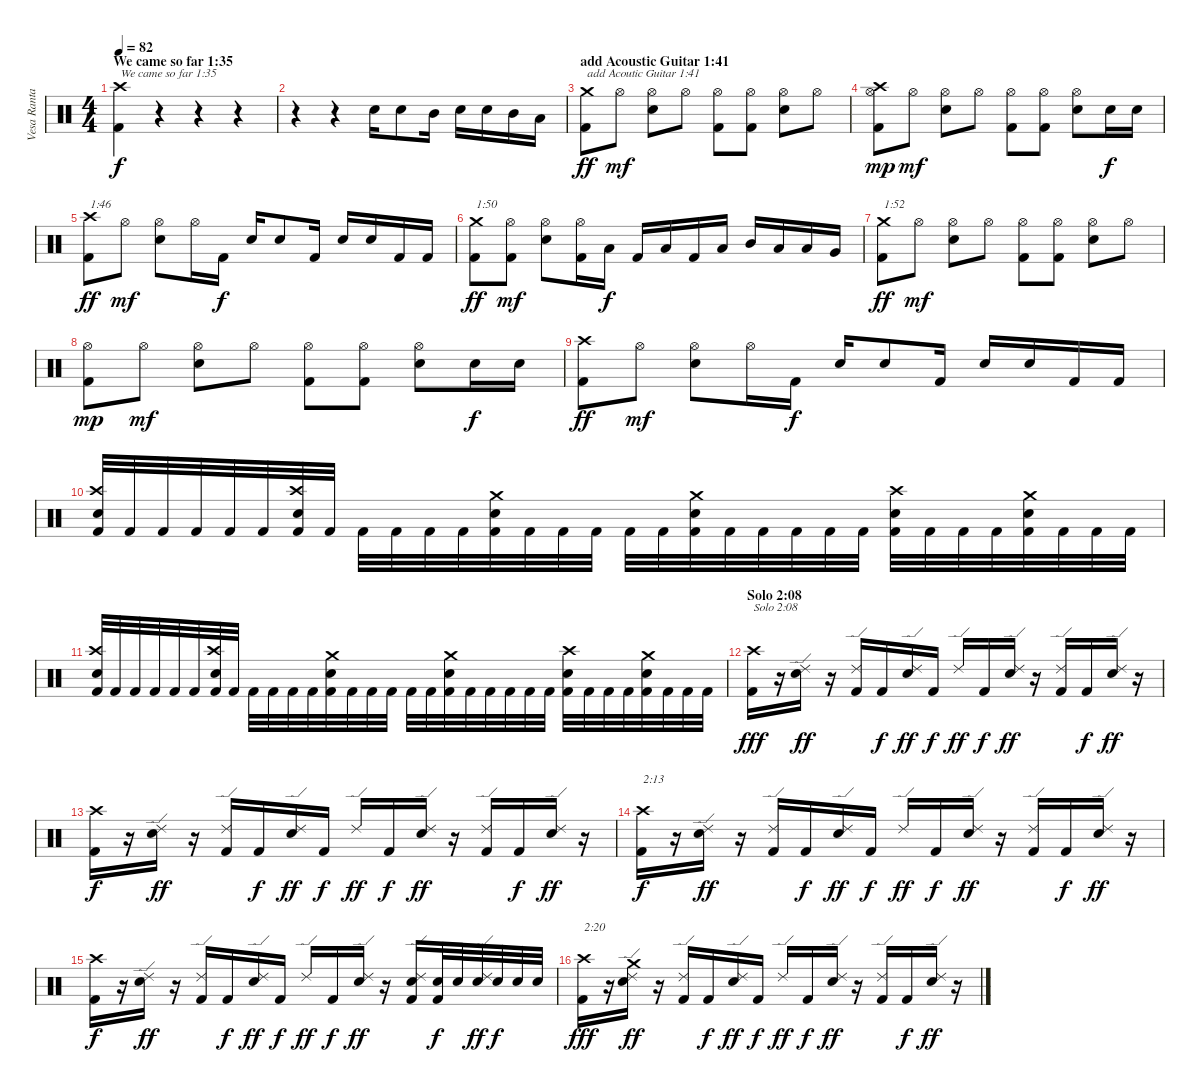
\track ("Vesa Ranta (Drums)" "Vesa Ranta") {instrument percussion}
\staff {score}
\articulation defaults
\ts (4 4)
\section ("" "We came so far 1:35")
\tempo 82
\clef neutral
\ks c
("Kick (hit) 2" "Crash high (hit)").4{txt "We came so far 1:35" dy f} r.4 r.4 r.4 |
r.4 r.4 "Electric Snare (hit)".16 "Electric Snare (hit)".8 "Mid Tom (hit)".16 "Electric Snare (hit)".16 "Electric Snare (hit)".16 "Mid Tom (hit)".16 "Low Tom (hit)".16 |
\section ("" "add Acoustic Guitar 1:41")
("Kick (hit) 2" "Crash medium (hit)").8{txt "add Acoutic Guitar 1:41" dy ff} "Hi-Hat (open)".8{dy mf} ("Electric Snare (hit)" "Hi-Hat (open)").8 "Hi-Hat (open)".8 ("Kick (hit) 2" "Hi-Hat (open)").8 ("Kick (hit) 2" "Hi-Hat (open)").8 ("Electric Snare (hit)" "Hi-Hat (open)").8 "Hi-Hat (open)".8 |
("Kick (hit) 2" "Hi-Hat (open)" "Crash high (hit)").8{dy mp} "Hi-Hat (open)".8{dy mf} ("Electric Snare (hit)" "Hi-Hat (open)").8 "Hi-Hat (open)".8 ("Kick (hit) 2" "Hi-Hat (open)").8 ("Kick (hit) 2" "Hi-Hat (open)").8 ("Electric Snare (hit)" "Hi-Hat (open)").8 "Electric Snare (hit)".16{dy f} "Electric Snare (hit)".16 |
("Kick (hit) 2" "Crash high (hit)").8{txt "1:46" dy ff} "Hi-Hat (open)".8{dy mf} ("Electric Snare (hit)" "Hi-Hat (open)").8 "Hi-Hat (open)".16 "Kick (hit) 2".16{dy f} "Electric Snare (hit)".16 "Electric Snare (hit)".8 "Kick (hit) 2".16 "Electric Snare (hit)".16 "Electric Snare (hit)".16 "Kick (hit) 2".16 "Kick (hit) 2".16 |
("Kick (hit) 2" "Crash medium (hit)").8{txt "1:50" dy ff} ("Kick (hit) 2" "Hi-Hat (open)").8{dy mf} ("Electric Snare (hit)" "Hi-Hat (open)").8 ("Kick (hit) 2" "Hi-Hat (open)").16 "Low Tom (hit)".16{dy f} "Kick (hit) 2".16 "Low Tom (hit)".16 "Kick (hit) 2".16 "Low Tom (hit)".16 "Mid Tom (hit)".16 "Low Tom (hit)".16 "Low Tom (hit)".16 "Very Low Tom (hit)".16 |
("Kick (hit) 2" "Crash medium (hit)").8{txt "1:52" dy ff} "Hi-Hat (open)".8{dy mf} ("Electric Snare (hit)" "Hi-Hat (open)").8 "Hi-Hat (open)".8 ("Kick (hit) 2" "Hi-Hat (open)").8 ("Kick (hit) 2" "Hi-Hat (open)").8 ("Electric Snare (hit)" "Hi-Hat (open)").8 "Hi-Hat (open)".8 |
("Kick (hit) 2" "Hi-Hat (open)").8{dy mp} "Hi-Hat (open)".8{dy mf} ("Electric Snare (hit)" "Hi-Hat (open)").8 "Hi-Hat (open)".8 ("Kick (hit) 2" "Hi-Hat (open)").8 ("Kick (hit) 2" "Hi-Hat (open)").8 ("Electric Snare (hit)" "Hi-Hat (open)").8 "Electric Snare (hit)".16{dy f} "Electric Snare (hit)".16 |
("Kick (hit) 2" "Crash high (hit)").8{dy ff} "Hi-Hat (open)".8{dy mf} ("Electric Snare (hit)" "Hi-Hat (open)").8 "Hi-Hat (open)".16 "Kick (hit) 2".16{dy f} "Electric Snare (hit)".16 "Electric Snare (hit)".8 "Kick (hit) 2".16 "Electric Snare (hit)".16 "Electric Snare (hit)".16 "Kick (hit) 2".16 "Kick (hit) 2".16 |
("Kick (hit) 2" "Electric Snare (hit)" "Crash high (hit)").32 "Kick (hit) 2".32 "Kick (hit) 2".32 "Kick (hit) 2".32 "Kick (hit) 2".32 "Kick (hit) 2".32 ("Kick (hit) 2" "Electric Snare (hit)" "Crash high (hit)").32 "Kick (hit) 2".32 "Kick (hit) 2".32 "Kick (hit) 2".32 "Kick (hit) 2".32 "Kick (hit) 2".32 ("Kick (hit) 2" "Electric Snare (hit)" "Crash medium (hit)").32 "Kick (hit) 2".32 "Kick (hit) 2".32 "Kick (hit) 2".32 "Kick (hit) 2".32 "Kick (hit) 2".32 ("Kick (hit) 2" "Electric Snare (hit)" "Crash medium (hit)").32 "Kick (hit) 2".32 "Kick (hit) 2".32 "Kick (hit) 2".32 "Kick (hit) 2".32 "Kick (hit) 2".32 ("Kick (hit) 2" "Electric Snare (hit)" "Crash high (hit)").32 "Kick (hit) 2".32 "Kick (hit) 2".32 "Kick (hit) 2".32 ("Kick (hit) 2" "Electric Snare (hit)" "Crash medium (hit)").32 "Kick (hit) 2".32 "Kick (hit) 2".32 "Kick (hit) 2".32 |
("Kick (hit) 2" "Electric Snare (hit)" "Crash high (hit)").32 "Kick (hit) 2".32 "Kick (hit) 2".32 "Kick (hit) 2".32 "Kick (hit) 2".32 "Kick (hit) 2".32 ("Kick (hit) 2" "Electric Snare (hit)" "Crash high (hit)").32 "Kick (hit) 2".32 "Kick (hit) 2".32 "Kick (hit) 2".32 "Kick (hit) 2".32 "Kick (hit) 2".32 ("Kick (hit) 2" "Electric Snare (hit)" "Crash medium (hit)").32 "Kick (hit) 2".32 "Kick (hit) 2".32 "Kick (hit) 2".32 "Kick (hit) 2".32 "Kick (hit) 2".32 ("Kick (hit) 2" "Electric Snare (hit)" "Crash medium (hit)").32 "Kick (hit) 2".32 "Kick (hit) 2".32 "Kick (hit) 2".32 "Kick (hit) 2".32 "Kick (hit) 2".32 ("Kick (hit) 2" "Electric Snare (hit)" "Crash high (hit)").32 "Kick (hit) 2".32 "Kick (hit) 2".32 "Kick (hit) 2".32 ("Kick (hit) 2" "Electric Snare (hit)" "Crash medium (hit)").32 "Kick (hit) 2".32 "Kick (hit) 2".32 "Kick (hit) 2".32 |
\section ("" "Solo 2:08")
("Kick (hit) 2" "Crash high (hit)").16{txt "Solo 2:08" dy fff} r.16 ("Electric Snare (hit)" "Ride (edge) 2").16{dy ff} r.16 ("Kick (hit) 2" "Ride (edge) 2").16 "Kick (hit) 2".16{dy f} ("Electric Snare (hit)" "Ride (edge) 2").16{dy ff} "Kick (hit) 2".16{dy f} "Ride (edge) 2".16{dy ff} "Kick (hit) 2".16{dy f} ("Electric Snare (hit)" "Ride (edge) 2").16{dy ff} r.16 ("Kick (hit) 2" "Ride (edge) 2").16 "Kick (hit) 2".16{dy f} ("Electric Snare (hit)" "Ride (edge) 2").16{dy ff} r.16 |
("Kick (hit) 2" "Crash high (hit)").16{dy f} r.16 ("Electric Snare (hit)" "Ride (edge) 2").16{dy ff} r.16 ("Kick (hit) 2" "Ride (edge) 2").16 "Kick (hit) 2".16{dy f} ("Electric Snare (hit)" "Ride (edge) 2").16{dy ff} "Kick (hit) 2".16{dy f} "Ride (edge) 2".16{dy ff} "Kick (hit) 2".16{dy f} ("Electric Snare (hit)" "Ride (edge) 2").16{dy ff} r.16 ("Kick (hit) 2" "Ride (edge) 2").16 "Kick (hit) 2".16{dy f} ("Electric Snare (hit)" "Ride (edge) 2").16{dy ff} r.16 |
("Kick (hit) 2" "Crash high (hit)").16{txt "2:13" dy f} r.16 ("Electric Snare (hit)" "Ride (edge) 2").16{dy ff} r.16 ("Kick (hit) 2" "Ride (edge) 2").16 "Kick (hit) 2".16{dy f} ("Electric Snare (hit)" "Ride (edge) 2").16{dy ff} "Kick (hit) 2".16{dy f} "Ride (edge) 2".16{dy ff} "Kick (hit) 2".16{dy f} ("Electric Snare (hit)" "Ride (edge) 2").16{dy ff} r.16 ("Kick (hit) 2" "Ride (edge) 2").16 "Kick (hit) 2".16{dy f} ("Electric Snare (hit)" "Ride (edge) 2").16{dy ff} r.16 |
("Kick (hit) 2" "Crash high (hit)").16{dy f} r.16 ("Electric Snare (hit)" "Ride (edge) 2").16{dy ff} r.16 ("Kick (hit) 2" "Ride (edge) 2").16 "Kick (hit) 2".16{dy f} ("Electric Snare (hit)" "Ride (edge) 2").16{dy ff} "Kick (hit) 2".16{dy f} "Ride (edge) 2".16{dy ff} "Kick (hit) 2".16{dy f} ("Electric Snare (hit)" "Ride (edge) 2").16{dy ff} r.16 ("Kick (hit) 2" "Electric Snare (hit)" "Ride (edge) 2").16 ("Kick (hit) 2" "Electric Snare (hit)").32{dy f} "Electric Snare (hit)".32 ("Electric Snare (hit)" "Ride (edge) 2").32{dy ff} "Electric Snare (hit)".32{dy f} "Electric Snare (hit)".32 "Electric Snare (hit)".32 |
("Kick (hit) 2" "Crash high (hit)").16{txt "2:20" dy fff} r.16 ("Electric Snare (hit)" "Ride (edge) 2" "Crash medium (hit)").16{dy ff} r.16 ("Kick (hit) 2" "Ride (edge) 2").16 "Kick (hit) 2".16{dy f} ("Electric Snare (hit)" "Ride (edge) 2").16{dy ff} "Kick (hit) 2".16{dy f} "Ride (edge) 2".16{dy ff} "Kick (hit) 2".16{dy f} ("Electric Snare (hit)" "Ride (edge) 2").16{dy ff} r.16 ("Kick (hit) 2" "Ride (edge) 2").16 "Kick (hit) 2".16{dy f} ("Electric Snare (hit)" "Ride (edge) 2").16{dy ff} r.16
